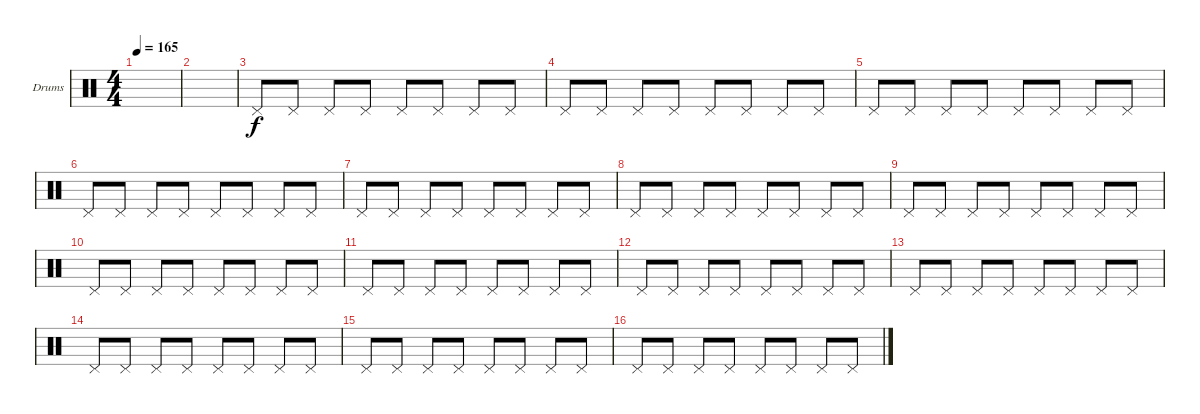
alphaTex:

\bracketExtendMode groupsimilarinstruments
\firstSystemTrackNameOrientation horizontal
\otherSystemsTrackNameOrientation horizontal
\track ("Drumkit" "Drums") {instrument percussion}
\staff {score}
\articulation defaults
\ts (4 4)
\tempo 165
\clef neutral
\scale
0.333333
\ks c
|
\scale
0.333333 |
\scale
0.333333 "Pedal Hi-Hat (hit)".8 "Pedal Hi-Hat (hit)".8 "Pedal Hi-Hat (hit)".8 "Pedal Hi-Hat (hit)".8 "Pedal Hi-Hat (hit)".8 "Pedal Hi-Hat (hit)".8 "Pedal Hi-Hat (hit)".8 "Pedal Hi-Hat (hit)".8 |
\scale
0.333333 "Pedal Hi-Hat (hit)".8 "Pedal Hi-Hat (hit)".8 "Pedal Hi-Hat (hit)".8 "Pedal Hi-Hat (hit)".8 "Pedal Hi-Hat (hit)".8 "Pedal Hi-Hat (hit)".8 "Pedal Hi-Hat (hit)".8 "Pedal Hi-Hat (hit)".8 |
\scale
0.333333 "Pedal Hi-Hat (hit)".8 "Pedal Hi-Hat (hit)".8 "Pedal Hi-Hat (hit)".8 "Pedal Hi-Hat (hit)".8 "Pedal Hi-Hat (hit)".8 "Pedal Hi-Hat (hit)".8 "Pedal Hi-Hat (hit)".8 "Pedal Hi-Hat (hit)".8 |
\scale
0.333333 "Pedal Hi-Hat (hit)".8 "Pedal Hi-Hat (hit)".8 "Pedal Hi-Hat (hit)".8 "Pedal Hi-Hat (hit)".8 "Pedal Hi-Hat (hit)".8 "Pedal Hi-Hat (hit)".8 "Pedal Hi-Hat (hit)".8 "Pedal Hi-Hat (hit)".8 |
\scale
0.333333 "Pedal Hi-Hat (hit)".8 "Pedal Hi-Hat (hit)".8 "Pedal Hi-Hat (hit)".8 "Pedal Hi-Hat (hit)".8 "Pedal Hi-Hat (hit)".8 "Pedal Hi-Hat (hit)".8 "Pedal Hi-Hat (hit)".8 "Pedal Hi-Hat (hit)".8 |
\scale
0.333333 "Pedal Hi-Hat (hit)".8 "Pedal Hi-Hat (hit)".8 "Pedal Hi-Hat (hit)".8 "Pedal Hi-Hat (hit)".8 "Pedal Hi-Hat (hit)".8 "Pedal Hi-Hat (hit)".8 "Pedal Hi-Hat (hit)".8 "Pedal Hi-Hat (hit)".8 |
\scale
0.333333 "Pedal Hi-Hat (hit)".8 "Pedal Hi-Hat (hit)".8 "Pedal Hi-Hat (hit)".8 "Pedal Hi-Hat (hit)".8 "Pedal Hi-Hat (hit)".8 "Pedal Hi-Hat (hit)".8 "Pedal Hi-Hat (hit)".8 "Pedal Hi-Hat (hit)".8 |
\scale
0.333333 "Pedal Hi-Hat (hit)".8 "Pedal Hi-Hat (hit)".8 "Pedal Hi-Hat (hit)".8 "Pedal Hi-Hat (hit)".8 "Pedal Hi-Hat (hit)".8 "Pedal Hi-Hat (hit)".8 "Pedal Hi-Hat (hit)".8 "Pedal Hi-Hat (hit)".8 |
\scale
0.333333 "Pedal Hi-Hat (hit)".8 "Pedal Hi-Hat (hit)".8 "Pedal Hi-Hat (hit)".8 "Pedal Hi-Hat (hit)".8 "Pedal Hi-Hat (hit)".8 "Pedal Hi-Hat (hit)".8 "Pedal Hi-Hat (hit)".8 "Pedal Hi-Hat (hit)".8 |
\scale
0.333333 "Pedal Hi-Hat (hit)".8 "Pedal Hi-Hat (hit)".8 "Pedal Hi-Hat (hit)".8 "Pedal Hi-Hat (hit)".8 "Pedal Hi-Hat (hit)".8 "Pedal Hi-Hat (hit)".8 "Pedal Hi-Hat (hit)".8 "Pedal Hi-Hat (hit)".8 |
\scale
0.333333 "Pedal Hi-Hat (hit)".8 "Pedal Hi-Hat (hit)".8 "Pedal Hi-Hat (hit)".8 "Pedal Hi-Hat (hit)".8 "Pedal Hi-Hat (hit)".8 "Pedal Hi-Hat (hit)".8 "Pedal Hi-Hat (hit)".8 "Pedal Hi-Hat (hit)".8 |
\scale
0.333333 "Pedal Hi-Hat (hit)".8 "Pedal Hi-Hat (hit)".8 "Pedal Hi-Hat (hit)".8 "Pedal Hi-Hat (hit)".8 "Pedal Hi-Hat (hit)".8 "Pedal Hi-Hat (hit)".8 "Pedal Hi-Hat (hit)".8 "Pedal Hi-Hat (hit)".8 |
\scale
0.333333 "Pedal Hi-Hat (hit)".8 "Pedal Hi-Hat (hit)".8 "Pedal Hi-Hat (hit)".8 "Pedal Hi-Hat (hit)".8 "Pedal Hi-Hat (hit)".8 "Pedal Hi-Hat (hit)".8 "Pedal Hi-Hat (hit)".8 "Pedal Hi-Hat (hit)".8 |
\scale
0.333333 "Pedal Hi-Hat (hit)".8 "Pedal Hi-Hat (hit)".8 "Pedal Hi-Hat (hit)".8 "Pedal Hi-Hat (hit)".8 "Pedal Hi-Hat (hit)".8 "Pedal Hi-Hat (hit)".8 "Pedal Hi-Hat (hit)".8 "Pedal Hi-Hat (hit)".8
